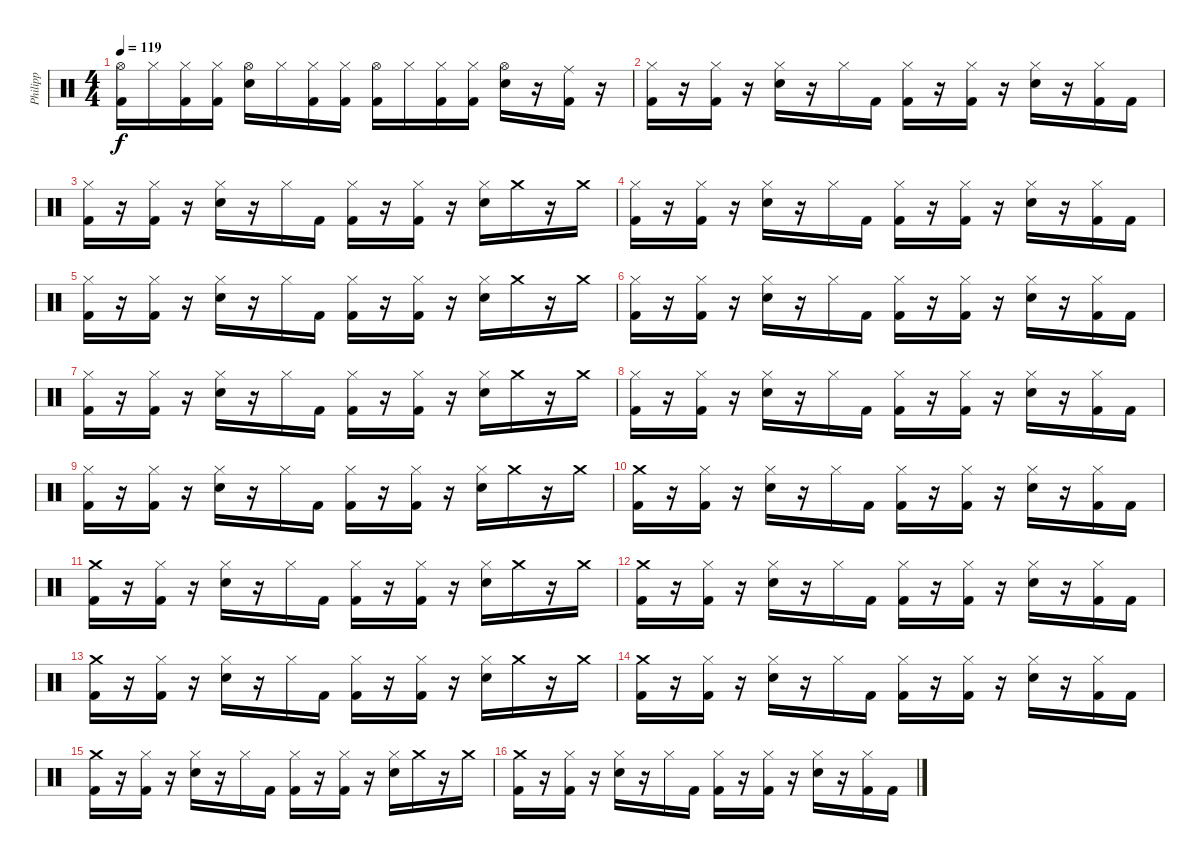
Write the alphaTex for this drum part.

\track ("Philipp" "Philipp") {instrument percussion}
\staff {score}
\articulation defaults
\ts (4 4)
\tempo 119
\clef neutral
\ks c
("Hi-Hat (open)" "Kick (hit) 2").16{dy f} "Hi-Hat (closed)".16 ("Hi-Hat (closed)" "Kick (hit) 2").16 ("Hi-Hat (closed)" "Kick (hit) 2").16 ("Hi-Hat (open)" "Electric Snare (hit)").16 "Hi-Hat (closed)".16 ("Hi-Hat (closed)" "Kick (hit) 2").16 ("Hi-Hat (closed)" "Kick (hit) 2").16 ("Hi-Hat (open)" "Kick (hit) 2").16 "Hi-Hat (closed)".16 ("Hi-Hat (closed)" "Kick (hit) 2").16 ("Hi-Hat (closed)" "Kick (hit) 2").16 ("Hi-Hat (open)" "Electric Snare (hit)").16 r.16 ("Ride (middle)" "Kick (hit) 2").16 r.16 |
("Hi-Hat (closed)" "Kick (hit) 2").16 r.16 ("Hi-Hat (closed)" "Kick (hit) 2").16 r.16 ("Hi-Hat (closed)" "Electric Snare (hit)").16 r.16 "Hi-Hat (closed)".16 "Kick (hit) 2".16 ("Hi-Hat (closed)" "Kick (hit) 2").16 r.16 ("Hi-Hat (closed)" "Kick (hit) 2").16 r.16 ("Hi-Hat (closed)" "Electric Snare (hit)").16 r.16 ("Hi-Hat (closed)" "Kick (hit) 2").16 "Kick (hit) 2".16 |
("Hi-Hat (closed)" "Kick (hit) 2").16 r.16 ("Hi-Hat (closed)" "Kick (hit) 2").16 r.16 ("Hi-Hat (closed)" "Electric Snare (hit)").16 r.16 "Hi-Hat (closed)".16 "Kick (hit) 2".16 ("Hi-Hat (closed)" "Kick (hit) 2").16 r.16 ("Hi-Hat (closed)" "Kick (hit) 2").16 r.16 ("Hi-Hat (closed)" "Electric Snare (hit)").16 "Crash medium (hit)".16 r.16 "Crash medium (hit)".16 |
("Hi-Hat (closed)" "Kick (hit) 2").16 r.16 ("Hi-Hat (closed)" "Kick (hit) 2").16 r.16 ("Hi-Hat (closed)" "Electric Snare (hit)").16 r.16 "Hi-Hat (closed)".16 "Kick (hit) 2".16 ("Hi-Hat (closed)" "Kick (hit) 2").16 r.16 ("Hi-Hat (closed)" "Kick (hit) 2").16 r.16 ("Hi-Hat (closed)" "Electric Snare (hit)").16 r.16 ("Hi-Hat (closed)" "Kick (hit) 2").16 "Kick (hit) 2".16 |
("Hi-Hat (closed)" "Kick (hit) 2").16 r.16 ("Hi-Hat (closed)" "Kick (hit) 2").16 r.16 ("Hi-Hat (closed)" "Electric Snare (hit)").16 r.16 "Hi-Hat (closed)".16 "Kick (hit) 2".16 ("Hi-Hat (closed)" "Kick (hit) 2").16 r.16 ("Hi-Hat (closed)" "Kick (hit) 2").16 r.16 ("Hi-Hat (closed)" "Electric Snare (hit)").16 "Crash medium (hit)".16 r.16 "Crash medium (hit)".16 |
("Hi-Hat (closed)" "Kick (hit) 2").16 r.16 ("Hi-Hat (closed)" "Kick (hit) 2").16 r.16 ("Hi-Hat (closed)" "Electric Snare (hit)").16 r.16 "Hi-Hat (closed)".16 "Kick (hit) 2".16 ("Hi-Hat (closed)" "Kick (hit) 2").16 r.16 ("Hi-Hat (closed)" "Kick (hit) 2").16 r.16 ("Hi-Hat (closed)" "Electric Snare (hit)").16 r.16 ("Hi-Hat (closed)" "Kick (hit) 2").16 "Kick (hit) 2".16 |
("Hi-Hat (closed)" "Kick (hit) 2").16 r.16 ("Hi-Hat (closed)" "Kick (hit) 2").16 r.16 ("Hi-Hat (closed)" "Electric Snare (hit)").16 r.16 "Hi-Hat (closed)".16 "Kick (hit) 2".16 ("Hi-Hat (closed)" "Kick (hit) 2").16 r.16 ("Hi-Hat (closed)" "Kick (hit) 2").16 r.16 ("Hi-Hat (closed)" "Electric Snare (hit)").16 "Crash medium (hit)".16 r.16 "Crash medium (hit)".16 |
("Hi-Hat (closed)" "Kick (hit) 2").16 r.16 ("Hi-Hat (closed)" "Kick (hit) 2").16 r.16 ("Hi-Hat (closed)" "Electric Snare (hit)").16 r.16 "Hi-Hat (closed)".16 "Kick (hit) 2".16 ("Hi-Hat (closed)" "Kick (hit) 2").16 r.16 ("Hi-Hat (closed)" "Kick (hit) 2").16 r.16 ("Hi-Hat (closed)" "Electric Snare (hit)").16 r.16 ("Hi-Hat (closed)" "Kick (hit) 2").16 "Kick (hit) 2".16 |
("Hi-Hat (closed)" "Kick (hit) 2").16 r.16 ("Hi-Hat (closed)" "Kick (hit) 2").16 r.16 ("Hi-Hat (closed)" "Electric Snare (hit)").16 r.16 "Hi-Hat (closed)".16 "Kick (hit) 2".16 ("Hi-Hat (closed)" "Kick (hit) 2").16 r.16 ("Hi-Hat (closed)" "Kick (hit) 2").16 r.16 ("Hi-Hat (closed)" "Electric Snare (hit)").16 "Crash medium (hit)".16 r.16 "Crash medium (hit)".16 |
("Crash medium (hit)" "Kick (hit) 2").16 r.16 ("Hi-Hat (closed)" "Kick (hit) 2").16 r.16 ("Hi-Hat (closed)" "Electric Snare (hit)").16 r.16 "Hi-Hat (closed)".16 "Kick (hit) 2".16 ("Hi-Hat (closed)" "Kick (hit) 2").16 r.16 ("Hi-Hat (closed)" "Kick (hit) 2").16 r.16 ("Hi-Hat (closed)" "Electric Snare (hit)").16 r.16 ("Hi-Hat (closed)" "Kick (hit) 2").16 "Kick (hit) 2".16 |
("Crash medium (hit)" "Kick (hit) 2").16 r.16 ("Hi-Hat (closed)" "Kick (hit) 2").16 r.16 ("Hi-Hat (closed)" "Electric Snare (hit)").16 r.16 "Hi-Hat (closed)".16 "Kick (hit) 2".16 ("Hi-Hat (closed)" "Kick (hit) 2").16 r.16 ("Hi-Hat (closed)" "Kick (hit) 2").16 r.16 ("Hi-Hat (closed)" "Electric Snare (hit)").16 "Crash medium (hit)".16 r.16 "Crash medium (hit)".16 |
("Crash medium (hit)" "Kick (hit) 2").16 r.16 ("Hi-Hat (closed)" "Kick (hit) 2").16 r.16 ("Hi-Hat (closed)" "Electric Snare (hit)").16 r.16 "Hi-Hat (closed)".16 "Kick (hit) 2".16 ("Hi-Hat (closed)" "Kick (hit) 2").16 r.16 ("Hi-Hat (closed)" "Kick (hit) 2").16 r.16 ("Hi-Hat (closed)" "Electric Snare (hit)").16 r.16 ("Hi-Hat (closed)" "Kick (hit) 2").16 "Kick (hit) 2".16 |
("Crash medium (hit)" "Kick (hit) 2").16 r.16 ("Hi-Hat (closed)" "Kick (hit) 2").16 r.16 ("Hi-Hat (closed)" "Electric Snare (hit)").16 r.16 "Hi-Hat (closed)".16 "Kick (hit) 2".16 ("Hi-Hat (closed)" "Kick (hit) 2").16 r.16 ("Hi-Hat (closed)" "Kick (hit) 2").16 r.16 ("Hi-Hat (closed)" "Electric Snare (hit)").16 "Crash medium (hit)".16 r.16 "Crash medium (hit)".16 |
("Crash medium (hit)" "Kick (hit) 2").16 r.16 ("Hi-Hat (closed)" "Kick (hit) 2").16 r.16 ("Hi-Hat (closed)" "Electric Snare (hit)").16 r.16 "Hi-Hat (closed)".16 "Kick (hit) 2".16 ("Hi-Hat (closed)" "Kick (hit) 2").16 r.16 ("Hi-Hat (closed)" "Kick (hit) 2").16 r.16 ("Hi-Hat (closed)" "Electric Snare (hit)").16 r.16 ("Hi-Hat (closed)" "Kick (hit) 2").16 "Kick (hit) 2".16 |
("Crash medium (hit)" "Kick (hit) 2").16 r.16 ("Hi-Hat (closed)" "Kick (hit) 2").16 r.16 ("Hi-Hat (closed)" "Electric Snare (hit)").16 r.16 "Hi-Hat (closed)".16 "Kick (hit) 2".16 ("Hi-Hat (closed)" "Kick (hit) 2").16 r.16 ("Hi-Hat (closed)" "Kick (hit) 2").16 r.16 ("Hi-Hat (closed)" "Electric Snare (hit)").16 "Crash medium (hit)".16 r.16 "Crash medium (hit)".16 |
("Crash medium (hit)" "Kick (hit) 2").16 r.16 ("Hi-Hat (closed)" "Kick (hit) 2").16 r.16 ("Hi-Hat (closed)" "Electric Snare (hit)").16 r.16 "Hi-Hat (closed)".16 "Kick (hit) 2".16 ("Hi-Hat (closed)" "Kick (hit) 2").16 r.16 ("Hi-Hat (closed)" "Kick (hit) 2").16 r.16 ("Hi-Hat (closed)" "Electric Snare (hit)").16 r.16 ("Hi-Hat (closed)" "Kick (hit) 2").16 "Kick (hit) 2".16
